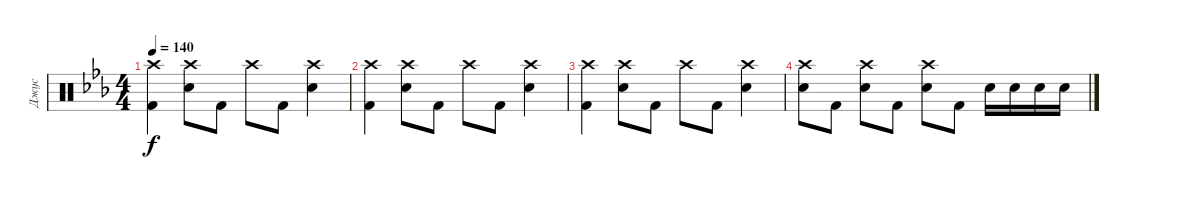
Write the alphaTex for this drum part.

\track ("Джус" "Джус") {instrument percussion}
\staff {score}
\articulation defaults
\ts (4 4)
\tempo 140
\clef neutral
\ks eb
("Crash high (hit)" "Kick (hit) 2").4{dy f} ("Crash high (hit)" "Electric Snare (hit)").8 "Kick (hit) 2".8 "Crash high (hit)".8 "Kick (hit) 2".8 ("Crash high (hit)" "Electric Snare (hit)").4 |
("Crash high (hit)" "Kick (hit) 2").4 ("Crash high (hit)" "Electric Snare (hit)").8 "Kick (hit) 2".8 "Crash high (hit)".8 "Kick (hit) 2".8 ("Crash high (hit)" "Electric Snare (hit)").4 |
("Crash high (hit)" "Kick (hit) 2").4 ("Crash high (hit)" "Electric Snare (hit)").8 "Kick (hit) 2".8 "Crash high (hit)".8 "Kick (hit) 2".8 ("Crash high (hit)" "Electric Snare (hit)").4 |
("Crash high (hit)" "Electric Snare (hit)").8 "Kick (hit) 2".8 ("Crash high (hit)" "Electric Snare (hit)").8 "Kick (hit) 2".8 ("Crash high (hit)" "Electric Snare (hit)").8 "Kick (hit) 2".8 "Electric Snare (hit)".16 "Electric Snare (hit)".16 "Electric Snare (hit)".16 "Electric Snare (hit)".16
